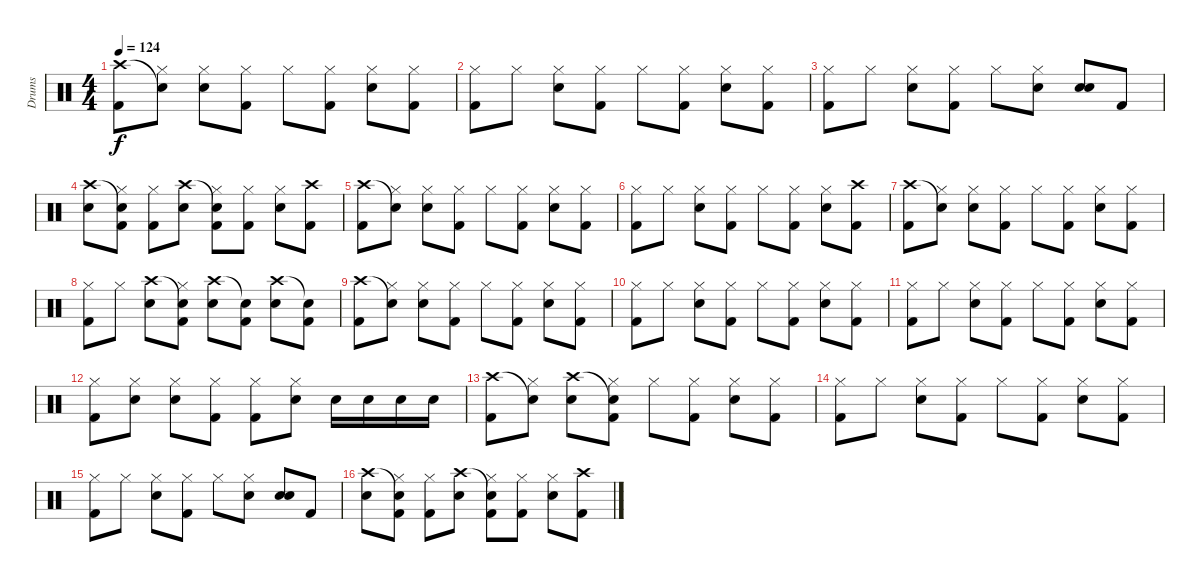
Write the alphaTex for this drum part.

\track ("Drums" "Drums") {instrument percussion}
\staff {score}
\articulation defaults
\ts (4 4)
\tempo 124
\clef neutral
\ks c
("Crash high (hit)" "Kick (hit) 2").8{dy f} ("Snare (hit)"{t} "Hi-Hat (closed)").8 ("Hi-Hat (closed)" "Snare (hit) 2").8 ("Hi-Hat (closed)" "Kick (hit) 2").8 "Hi-Hat (closed)".8 ("Hi-Hat (closed)" "Kick (hit) 2").8 ("Hi-Hat (closed)" "Snare (hit) 2").8 ("Hi-Hat (closed)" "Kick (hit) 2").8 |
("Hi-Hat (closed)" "Kick (hit) 2").8 "Hi-Hat (closed)".8 ("Hi-Hat (closed)" "Snare (hit) 2").8 ("Hi-Hat (closed)" "Kick (hit) 2").8 "Hi-Hat (closed)".8 ("Hi-Hat (closed)" "Kick (hit) 2").8 ("Hi-Hat (closed)" "Snare (hit) 2").8 ("Hi-Hat (closed)" "Kick (hit) 2").8 |
("Hi-Hat (closed)" "Kick (hit) 2").8 "Hi-Hat (closed)".8 ("Hi-Hat (closed)" "Snare (hit) 2").8 ("Hi-Hat (closed)" "Kick (hit) 2").8 "Hi-Hat (closed)".8 ("Hi-Hat (closed)" "Snare (hit) 2").8 ("Snare (hit) 2" "Snare (hit) 2").8 "Kick (hit) 2".8 |
("Crash high (hit)" "Snare (hit) 2").8 ("Snare (hit)"{t} "Hi-Hat (closed)" "Kick (hit) 2").8 ("Hi-Hat (closed)" "Kick (hit) 2").8 ("Crash high (hit)" "Snare (hit) 2").8 ("Snare (hit)"{t} "Hi-Hat (closed)" "Kick (hit) 2").8 ("Hi-Hat (closed)" "Kick (hit) 2").8 ("Hi-Hat (closed)" "Snare (hit) 2").8 ("Crash high (hit)" "Kick (hit) 2").8 |
("Crash high (hit)" "Kick (hit) 2").8 ("Snare (hit)"{t} "Hi-Hat (closed)").8 ("Hi-Hat (closed)" "Snare (hit) 2").8 ("Hi-Hat (closed)" "Kick (hit) 2").8 "Hi-Hat (closed)".8 ("Hi-Hat (closed)" "Kick (hit) 2").8 ("Hi-Hat (closed)" "Snare (hit) 2").8 ("Hi-Hat (closed)" "Kick (hit) 2").8 |
("Hi-Hat (closed)" "Kick (hit) 2").8 "Hi-Hat (closed)".8 ("Hi-Hat (closed)" "Snare (hit) 2").8 ("Hi-Hat (closed)" "Kick (hit) 2").8 "Hi-Hat (closed)".8 ("Hi-Hat (closed)" "Kick (hit) 2").8 ("Hi-Hat (closed)" "Snare (hit) 2").8 ("Crash high (hit)" "Kick (hit) 2").8 |
("Crash high (hit)" "Kick (hit) 2").8 ("Snare (hit)"{t} "Hi-Hat (closed)").8 ("Hi-Hat (closed)" "Snare (hit) 2").8 ("Hi-Hat (closed)" "Kick (hit) 2").8 "Hi-Hat (closed)".8 ("Hi-Hat (closed)" "Kick (hit) 2").8 ("Hi-Hat (closed)" "Snare (hit) 2").8 ("Hi-Hat (closed)" "Kick (hit) 2").8 |
("Hi-Hat (closed)" "Kick (hit) 2").8 "Hi-Hat (closed)".8 ("Crash high (hit)" "Snare (hit) 2").8 ("Snare (hit)"{t} "Hi-Hat (closed)" "Kick (hit) 2").8 ("Crash high (hit)" "Snare (hit) 2").8 ("Snare (hit)"{t} "Kick (hit) 2").8 ("Crash high (hit)" "Snare (hit) 2").8 ("Snare (hit)"{t} "Kick (hit) 2").8 |
("Crash high (hit)" "Kick (hit) 2").8 ("Snare (hit)"{t} "Hi-Hat (closed)").8 ("Hi-Hat (closed)" "Snare (hit) 2").8 ("Hi-Hat (closed)" "Kick (hit) 2").8 "Hi-Hat (closed)".8 ("Hi-Hat (closed)" "Kick (hit) 2").8 ("Hi-Hat (closed)" "Snare (hit) 2").8 ("Hi-Hat (closed)" "Kick (hit) 2").8 |
("Hi-Hat (closed)" "Kick (hit) 2").8 "Hi-Hat (closed)".8 ("Hi-Hat (closed)" "Snare (hit) 2").8 ("Hi-Hat (closed)" "Kick (hit) 2").8 "Hi-Hat (closed)".8 ("Hi-Hat (closed)" "Kick (hit) 2").8 ("Hi-Hat (closed)" "Snare (hit) 2").8 ("Hi-Hat (closed)" "Kick (hit) 2").8 |
("Hi-Hat (closed)" "Kick (hit) 2").8 "Hi-Hat (closed)".8 ("Hi-Hat (closed)" "Snare (hit) 2").8 ("Hi-Hat (closed)" "Kick (hit) 2").8 "Hi-Hat (closed)".8 ("Hi-Hat (closed)" "Kick (hit) 2").8 ("Hi-Hat (closed)" "Snare (hit) 2").8 ("Hi-Hat (closed)" "Kick (hit) 2").8 |
("Hi-Hat (closed)" "Kick (hit) 2").8 ("Hi-Hat (closed)" "Snare (hit) 2").8 ("Hi-Hat (closed)" "Snare (hit) 2").8 ("Hi-Hat (closed)" "Kick (hit) 2").8 ("Hi-Hat (closed)" "Kick (hit) 2").8 ("Hi-Hat (closed)" "Snare (hit) 2").8 "Snare (hit) 2".16 "Snare (hit) 2".16 "Snare (hit) 2".16 "Snare (hit) 2".16 |
("Crash high (hit)" "Kick (hit) 2").8 ("Snare (hit)"{t} "Hi-Hat (closed)").8 ("Crash high (hit)" "Snare (hit) 2").8 ("Snare (hit)"{t} "Hi-Hat (closed)" "Kick (hit) 2").8 "Hi-Hat (closed)".8 ("Hi-Hat (closed)" "Kick (hit) 2").8 ("Hi-Hat (closed)" "Snare (hit) 2").8 ("Hi-Hat (closed)" "Kick (hit) 2").8 |
("Hi-Hat (closed)" "Kick (hit) 2").8 "Hi-Hat (closed)".8 ("Hi-Hat (closed)" "Snare (hit) 2").8 ("Hi-Hat (closed)" "Kick (hit) 2").8 "Hi-Hat (closed)".8 ("Hi-Hat (closed)" "Kick (hit) 2").8 ("Hi-Hat (closed)" "Snare (hit) 2").8 ("Hi-Hat (closed)" "Kick (hit) 2").8 |
("Hi-Hat (closed)" "Kick (hit) 2").8 "Hi-Hat (closed)".8 ("Hi-Hat (closed)" "Snare (hit) 2").8 ("Hi-Hat (closed)" "Kick (hit) 2").8 "Hi-Hat (closed)".8 ("Hi-Hat (closed)" "Snare (hit) 2").8 ("Snare (hit) 2" "Snare (hit) 2").8 "Kick (hit) 2".8 |
("Crash high (hit)" "Snare (hit) 2").8 ("Snare (hit)"{t} "Hi-Hat (closed)" "Kick (hit) 2").8 ("Hi-Hat (closed)" "Kick (hit) 2").8 ("Crash high (hit)" "Snare (hit) 2").8 ("Snare (hit)"{t} "Hi-Hat (closed)" "Kick (hit) 2").8 ("Hi-Hat (closed)" "Kick (hit) 2").8 ("Hi-Hat (closed)" "Snare (hit) 2").8 ("Crash high (hit)" "Kick (hit) 2").8
